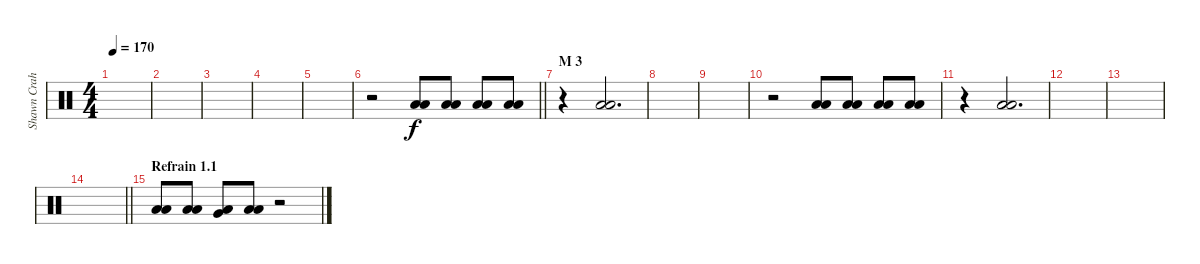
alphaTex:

\track ("Shawn Crahan" "Shawn Crah") {instrument percussion}
\staff {score}
\articulation defaults
\ts (4 4)
\tempo 170
\clef neutral
\ks c
|
|
|
|
|
\barLineRight lightlight
r.2 ("Low Floor Tom (hit)" "Low Floor Tom (hit)").8 ("Low Floor Tom (hit)" "Low Floor Tom (hit)").8 ("Low Floor Tom (hit)" "Low Floor Tom (hit)").8 ("Low Floor Tom (hit)" "Low Floor Tom (hit)").8 |
\section ("" "M 3")
r.4 ("Low Floor Tom (hit)" "Low Floor Tom (hit)").2{d} |
|
|
r.2 ("Low Floor Tom (hit)" "Low Floor Tom (hit)").8 ("Low Floor Tom (hit)" "Low Floor Tom (hit)").8 ("Low Floor Tom (hit)" "Low Floor Tom (hit)").8 ("Low Floor Tom (hit)" "Low Floor Tom (hit)").8 |
r.4 ("Low Floor Tom (hit)" "Low Floor Tom (hit)").2{d} |
|
|
\barLineRight lightlight
|
\section ("" "Refrain 1.1")
("Low Floor Tom (hit)" "Low Floor Tom (hit)").8 ("Low Floor Tom (hit)" "Low Floor Tom (hit)").8 ("Very Low Tom (hit)" "Low Floor Tom (hit)").8 ("Low Floor Tom (hit)" "Low Floor Tom (hit)").8 r.2
